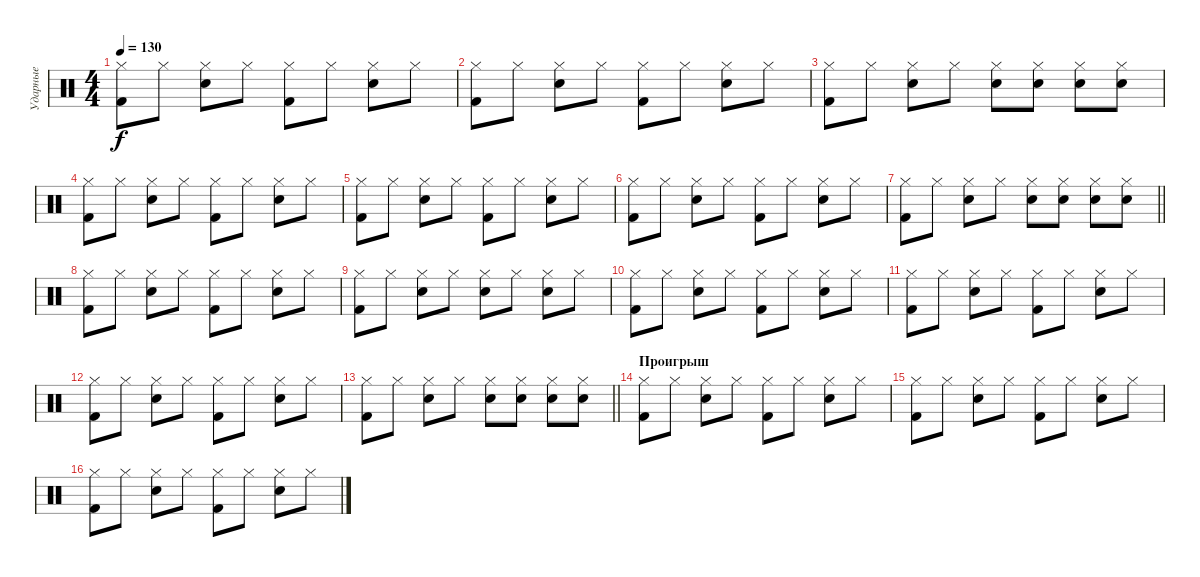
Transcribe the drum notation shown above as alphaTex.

\track ("Ударные" "Ударные") {instrument percussion}
\staff {score}
\articulation defaults
\ts (4 4)
\tempo 130
\clef neutral
\ks c
("Hi-Hat (closed)" "Kick (hit) 2").8{dy f} "Hi-Hat (closed)".8 ("Hi-Hat (closed)" "Snare (hit) 2").8 "Hi-Hat (closed)".8 ("Hi-Hat (closed)" "Kick (hit) 2").8 "Hi-Hat (closed)".8 ("Hi-Hat (closed)" "Snare (hit) 2").8 "Hi-Hat (closed)".8 |
("Hi-Hat (closed)" "Kick (hit) 2").8 "Hi-Hat (closed)".8 ("Hi-Hat (closed)" "Snare (hit) 2").8 "Hi-Hat (closed)".8 ("Hi-Hat (closed)" "Kick (hit) 2").8 "Hi-Hat (closed)".8 ("Hi-Hat (closed)" "Snare (hit) 2").8 "Hi-Hat (closed)".8 |
("Hi-Hat (closed)" "Kick (hit) 2").8 "Hi-Hat (closed)".8 ("Hi-Hat (closed)" "Snare (hit) 2").8 "Hi-Hat (closed)".8 ("Hi-Hat (closed)" "Snare (hit) 2").8 ("Hi-Hat (closed)" "Snare (hit) 2").8 ("Hi-Hat (closed)" "Snare (hit) 2").8 ("Hi-Hat (closed)" "Snare (hit) 2").8 |
("Hi-Hat (closed)" "Kick (hit) 2").8 "Hi-Hat (closed)".8 ("Hi-Hat (closed)" "Snare (hit) 2").8 "Hi-Hat (closed)".8 ("Hi-Hat (closed)" "Kick (hit) 2").8 "Hi-Hat (closed)".8 ("Hi-Hat (closed)" "Snare (hit) 2").8 "Hi-Hat (closed)".8 |
("Hi-Hat (closed)" "Kick (hit) 2").8 "Hi-Hat (closed)".8 ("Hi-Hat (closed)" "Snare (hit) 2").8 "Hi-Hat (closed)".8 ("Hi-Hat (closed)" "Kick (hit) 2").8 "Hi-Hat (closed)".8 ("Hi-Hat (closed)" "Snare (hit) 2").8 "Hi-Hat (closed)".8 |
("Hi-Hat (closed)" "Kick (hit) 2").8 "Hi-Hat (closed)".8 ("Hi-Hat (closed)" "Snare (hit) 2").8 "Hi-Hat (closed)".8 ("Hi-Hat (closed)" "Kick (hit) 2").8 "Hi-Hat (closed)".8 ("Hi-Hat (closed)" "Snare (hit) 2").8 "Hi-Hat (closed)".8 |
\barLineRight lightlight
("Hi-Hat (closed)" "Kick (hit) 2").8 "Hi-Hat (closed)".8 ("Hi-Hat (closed)" "Snare (hit) 2").8 "Hi-Hat (closed)".8 ("Hi-Hat (closed)" "Snare (hit) 2").8 ("Hi-Hat (closed)" "Snare (hit) 2").8 ("Hi-Hat (closed)" "Snare (hit) 2").8 ("Hi-Hat (closed)" "Snare (hit) 2").8 |
("Hi-Hat (closed)" "Kick (hit) 2").8 "Hi-Hat (closed)".8 ("Hi-Hat (closed)" "Snare (hit) 2").8 "Hi-Hat (closed)".8 ("Hi-Hat (closed)" "Kick (hit) 2").8 "Hi-Hat (closed)".8 ("Hi-Hat (closed)" "Snare (hit) 2").8 "Hi-Hat (closed)".8 |
("Hi-Hat (closed)" "Kick (hit) 2").8 "Hi-Hat (closed)".8 ("Hi-Hat (closed)" "Snare (hit) 2").8 "Hi-Hat (closed)".8 ("Hi-Hat (closed)" "Snare (hit) 2").8 "Hi-Hat (closed)".8 ("Hi-Hat (closed)" "Snare (hit) 2").8 "Hi-Hat (closed)".8 |
("Hi-Hat (closed)" "Kick (hit) 2").8 "Hi-Hat (closed)".8 ("Hi-Hat (closed)" "Snare (hit) 2").8 "Hi-Hat (closed)".8 ("Hi-Hat (closed)" "Kick (hit) 2").8 "Hi-Hat (closed)".8 ("Hi-Hat (closed)" "Snare (hit) 2").8 "Hi-Hat (closed)".8 |
("Hi-Hat (closed)" "Kick (hit) 2").8 "Hi-Hat (closed)".8 ("Hi-Hat (closed)" "Snare (hit) 2").8 "Hi-Hat (closed)".8 ("Hi-Hat (closed)" "Kick (hit) 2").8 "Hi-Hat (closed)".8 ("Hi-Hat (closed)" "Snare (hit) 2").8 "Hi-Hat (closed)".8 |
("Hi-Hat (closed)" "Kick (hit) 2").8 "Hi-Hat (closed)".8 ("Hi-Hat (closed)" "Snare (hit) 2").8 "Hi-Hat (closed)".8 ("Hi-Hat (closed)" "Kick (hit) 2").8 "Hi-Hat (closed)".8 ("Hi-Hat (closed)" "Snare (hit) 2").8 "Hi-Hat (closed)".8 |
\barLineRight lightlight
("Hi-Hat (closed)" "Kick (hit) 2").8 "Hi-Hat (closed)".8 ("Hi-Hat (closed)" "Snare (hit) 2").8 "Hi-Hat (closed)".8 ("Hi-Hat (closed)" "Snare (hit) 2").8 ("Hi-Hat (closed)" "Snare (hit) 2").8 ("Hi-Hat (closed)" "Snare (hit) 2").8 ("Hi-Hat (closed)" "Snare (hit) 2").8 |
\section ("" "Проигрыш")
("Hi-Hat (closed)" "Kick (hit) 2").8 "Hi-Hat (closed)".8 ("Hi-Hat (closed)" "Snare (hit) 2").8 "Hi-Hat (closed)".8 ("Hi-Hat (closed)" "Kick (hit) 2").8 "Hi-Hat (closed)".8 ("Hi-Hat (closed)" "Snare (hit) 2").8 "Hi-Hat (closed)".8 |
("Hi-Hat (closed)" "Kick (hit) 2").8 "Hi-Hat (closed)".8 ("Hi-Hat (closed)" "Snare (hit) 2").8 "Hi-Hat (closed)".8 ("Hi-Hat (closed)" "Kick (hit) 2").8 "Hi-Hat (closed)".8 ("Hi-Hat (closed)" "Snare (hit) 2").8 "Hi-Hat (closed)".8 |
("Hi-Hat (closed)" "Kick (hit) 2").8 "Hi-Hat (closed)".8 ("Hi-Hat (closed)" "Snare (hit) 2").8 "Hi-Hat (closed)".8 ("Hi-Hat (closed)" "Kick (hit) 2").8 "Hi-Hat (closed)".8 ("Hi-Hat (closed)" "Snare (hit) 2").8 "Hi-Hat (closed)".8
